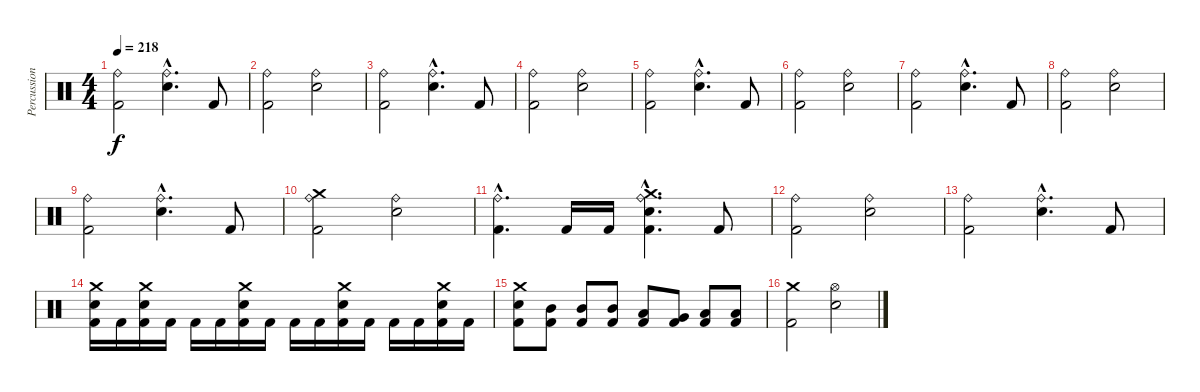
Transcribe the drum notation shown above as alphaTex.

\track ("Percussion" "Percussion") {instrument percussion}
\staff {score}
\articulation defaults
\ts (4 4)
\tempo 218
\clef neutral
\ks c
("Ride (bell)" "Kick (hit) 2").2{dy f} ("Ride (bell)"{hac} "Electric Snare (hit)"{hac}).4{d} "Kick (hit) 2".8 |
("Ride (bell)" "Kick (hit) 2").2 ("Ride (bell)" "Electric Snare (hit)").2 |
("Ride (bell)" "Kick (hit) 2").2 ("Ride (bell)"{hac} "Electric Snare (hit)"{hac}).4{d} "Kick (hit) 2".8 |
("Ride (bell)" "Kick (hit) 2").2 ("Ride (bell)" "Electric Snare (hit)").2 |
("Ride (bell)" "Kick (hit) 2").2 ("Ride (bell)"{hac} "Electric Snare (hit)"{hac}).4{d} "Kick (hit) 2".8 |
("Ride (bell)" "Kick (hit) 2").2 ("Ride (bell)" "Electric Snare (hit)").2 |
("Ride (bell)" "Kick (hit) 2").2 ("Ride (bell)"{hac} "Electric Snare (hit)"{hac}).4{d} "Kick (hit) 2".8 |
("Ride (bell)" "Kick (hit) 2").2 ("Ride (bell)" "Electric Snare (hit)").2 |
("Ride (bell)" "Kick (hit) 2").2 ("Ride (bell)"{hac} "Electric Snare (hit)"{hac}).4{d} "Kick (hit) 2".8 |
("Crash medium (hit)" "Ride (bell)" "Kick (hit) 2").2 ("Ride (bell)" "Electric Snare (hit)").2 |
("Ride (bell)"{hac} "Kick (hit) 2"{hac}).4{d} "Kick (hit) 2".16 "Kick (hit) 2".16 ("Crash medium (hit)"{hac} "Ride (bell)"{hac} "Electric Snare (hit)"{hac} "Kick (hit) 2"{hac}).4{d} "Kick (hit) 2".8 |
("Ride (bell)" "Kick (hit) 2").2 ("Ride (bell)" "Electric Snare (hit)").2 |
("Ride (bell)" "Kick (hit) 2").2 ("Ride (bell)"{hac} "Electric Snare (hit)"{hac}).4{d} "Kick (hit) 2".8 |
("Crash medium (hit)" "Electric Snare (hit)" "Kick (hit) 2").16 "Kick (hit) 2".16 ("Crash medium (hit)" "Electric Snare (hit)" "Kick (hit) 2").16 "Kick (hit) 2".16 "Kick (hit) 2".16 "Kick (hit) 2".16 ("Crash medium (hit)" "Electric Snare (hit)" "Kick (hit) 2").16 "Kick (hit) 2".16 "Kick (hit) 2".16 "Kick (hit) 2".16 ("Crash medium (hit)" "Electric Snare (hit)" "Kick (hit) 2").16 "Kick (hit) 2".16 "Kick (hit) 2".16 "Kick (hit) 2".16 ("Crash medium (hit)" "Electric Snare (hit)" "Kick (hit) 2").16 "Kick (hit) 2".16 |
("Crash medium (hit)" "Electric Snare (hit)" "Kick (hit) 2").8 ("Mid Tom (hit)" "Kick (hit) 2").8 ("Mid Tom (hit)" "Kick (hit) 2").8 ("Mid Tom (hit)" "Kick (hit) 2").8 ("Low Tom (hit)" "Kick (hit) 2").8 ("Very Low Tom (hit)" "Kick (hit) 2").8 ("Low Floor Tom (hit)" "Kick (hit) 2").8 ("Low Floor Tom (hit)" "Kick (hit) 2").8 |
("Crash medium (hit)" "Kick (hit) 2").2 ("Hi-Hat (open)" "Electric Snare (hit)").2
